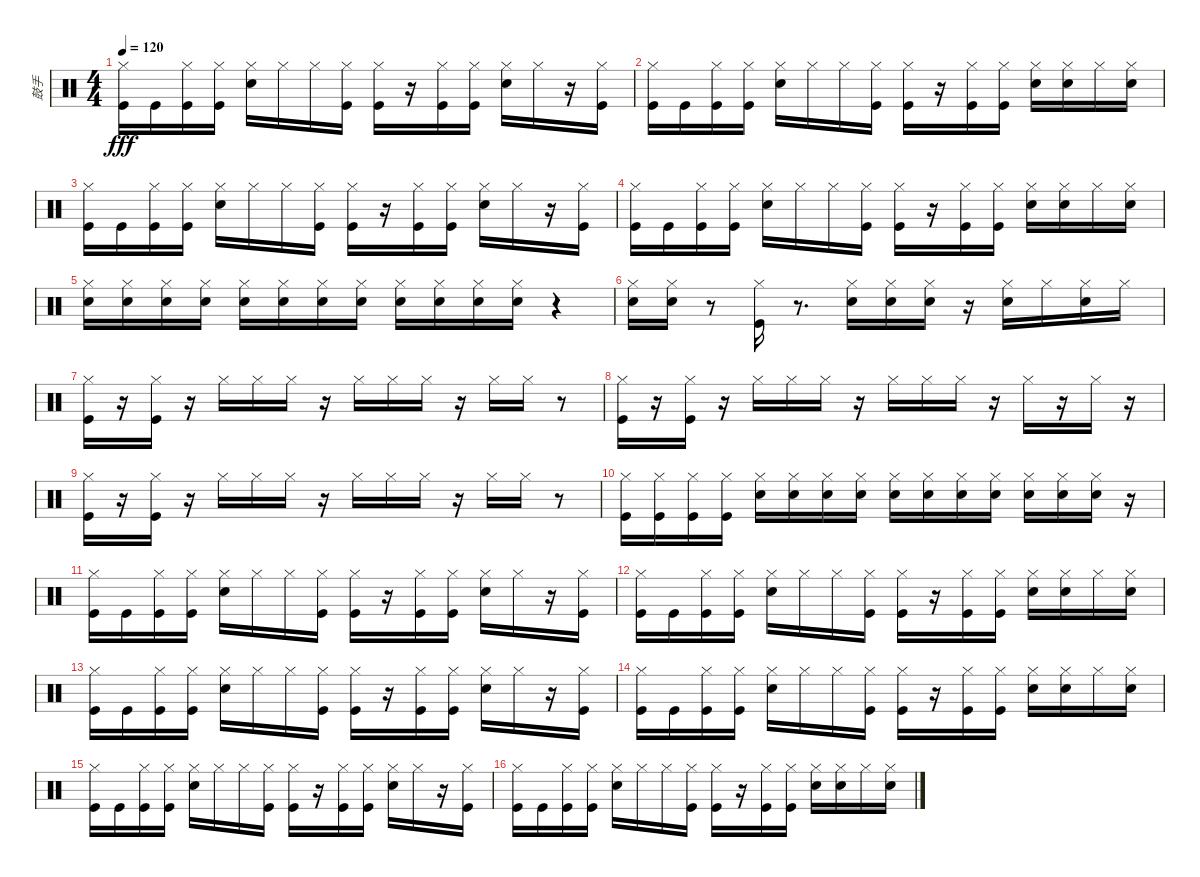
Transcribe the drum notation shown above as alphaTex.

\track ("鼓手" "鼓手") {instrument percussion}
\staff {score}
\articulation defaults
\ts (4 4)
\tempo 120
\clef neutral
\ks c
("Kick (hit)" "Hi-Hat (closed)").16{dy fff} "Kick (hit)".16 ("Kick (hit)" "Hi-Hat (closed)").16 ("Kick (hit)" "Hi-Hat (closed)").16 ("Snare (hit) 2" "Hi-Hat (closed)").16 "Hi-Hat (closed)".16 "Hi-Hat (closed)".16 ("Kick (hit)" "Hi-Hat (closed)").16 ("Kick (hit)" "Hi-Hat (closed)").16 r.16 ("Kick (hit)" "Hi-Hat (closed)").16 ("Kick (hit)" "Hi-Hat (closed)").16 ("Snare (hit) 2" "Hi-Hat (closed)").16 "Hi-Hat (closed)".16 r.16 ("Kick (hit)" "Hi-Hat (closed)").16 |
("Kick (hit)" "Hi-Hat (closed)").16 "Kick (hit)".16 ("Kick (hit)" "Hi-Hat (closed)").16 ("Kick (hit)" "Hi-Hat (closed)").16 ("Snare (hit) 2" "Hi-Hat (closed)").16 "Hi-Hat (closed)".16 "Hi-Hat (closed)".16 ("Kick (hit)" "Hi-Hat (closed)").16 ("Kick (hit)" "Hi-Hat (closed)").16 r.16 ("Kick (hit)" "Hi-Hat (closed)").16 ("Kick (hit)" "Hi-Hat (closed)").16 ("Snare (hit) 2" "Hi-Hat (closed)").16 ("Snare (hit) 2" "Hi-Hat (closed)").16 "Hi-Hat (closed)".16 ("Snare (hit) 2" "Hi-Hat (closed)").16 |
("Kick (hit)" "Hi-Hat (closed)").16 "Kick (hit)".16 ("Kick (hit)" "Hi-Hat (closed)").16 ("Kick (hit)" "Hi-Hat (closed)").16 ("Snare (hit) 2" "Hi-Hat (closed)").16 "Hi-Hat (closed)".16 "Hi-Hat (closed)".16 ("Kick (hit)" "Hi-Hat (closed)").16 ("Kick (hit)" "Hi-Hat (closed)").16 r.16 ("Kick (hit)" "Hi-Hat (closed)").16 ("Kick (hit)" "Hi-Hat (closed)").16 ("Snare (hit) 2" "Hi-Hat (closed)").16 "Hi-Hat (closed)".16 r.16 ("Kick (hit)" "Hi-Hat (closed)").16 |
("Kick (hit)" "Hi-Hat (closed)").16 "Kick (hit)".16 ("Kick (hit)" "Hi-Hat (closed)").16 ("Kick (hit)" "Hi-Hat (closed)").16 ("Snare (hit) 2" "Hi-Hat (closed)").16 "Hi-Hat (closed)".16 "Hi-Hat (closed)".16 ("Kick (hit)" "Hi-Hat (closed)").16 ("Kick (hit)" "Hi-Hat (closed)").16 r.16 ("Kick (hit)" "Hi-Hat (closed)").16 ("Kick (hit)" "Hi-Hat (closed)").16 ("Snare (hit) 2" "Hi-Hat (closed)").16 ("Snare (hit) 2" "Hi-Hat (closed)").16 "Hi-Hat (closed)".16 ("Snare (hit) 2" "Hi-Hat (closed)").16 |
("Snare (hit) 2" "Hi-Hat (closed)").16 ("Snare (hit) 2" "Hi-Hat (closed)").16 ("Snare (hit) 2" "Hi-Hat (closed)").16 ("Snare (hit) 2" "Hi-Hat (closed)").16 ("Snare (hit) 2" "Hi-Hat (closed)").16 ("Snare (hit) 2" "Hi-Hat (closed)").16 ("Snare (hit) 2" "Hi-Hat (closed)").16 ("Snare (hit) 2" "Hi-Hat (closed)").16 ("Snare (hit) 2" "Hi-Hat (closed)").16 ("Snare (hit) 2" "Hi-Hat (closed)").16 ("Snare (hit) 2" "Hi-Hat (closed)").16 ("Snare (hit) 2" "Hi-Hat (closed)").16 r.4 |
("Snare (hit) 2" "Hi-Hat (closed)").16 ("Snare (hit) 2" "Hi-Hat (closed)").16 r.8 ("Kick (hit)" "Hi-Hat (closed)").16 r.8{d} ("Snare (hit) 2" "Hi-Hat (closed)").16 ("Snare (hit) 2" "Hi-Hat (closed)").16 ("Snare (hit) 2" "Hi-Hat (closed)").16 r.16 ("Snare (hit) 2" "Hi-Hat (closed)").16 "Hi-Hat (closed)".16 ("Snare (hit) 2" "Hi-Hat (closed)").16 "Hi-Hat (closed)".16 |
("Kick (hit)" "Hi-Hat (closed)").16 r.16 ("Kick (hit)" "Hi-Hat (closed)").16 r.16 "Hi-Hat (closed)".16 "Hi-Hat (closed)".16 "Hi-Hat (closed)".16 r.16 "Hi-Hat (closed)".16 "Hi-Hat (closed)".16 "Hi-Hat (closed)".16 r.16 "Hi-Hat (closed)".16 "Hi-Hat (closed)".16 r.8 |
("Kick (hit)" "Hi-Hat (closed)").16 r.16 ("Kick (hit)" "Hi-Hat (closed)").16 r.16 "Hi-Hat (closed)".16 "Hi-Hat (closed)".16 "Hi-Hat (closed)".16 r.16 "Hi-Hat (closed)".16 "Hi-Hat (closed)".16 "Hi-Hat (closed)".16 r.16 "Hi-Hat (closed)".16 r.16 "Hi-Hat (closed)".16 r.16 |
("Kick (hit)" "Hi-Hat (closed)").16 r.16 ("Kick (hit)" "Hi-Hat (closed)").16 r.16 "Hi-Hat (closed)".16 "Hi-Hat (closed)".16 "Hi-Hat (closed)".16 r.16 "Hi-Hat (closed)".16 "Hi-Hat (closed)".16 "Hi-Hat (closed)".16 r.16 "Hi-Hat (closed)".16 "Hi-Hat (closed)".16 r.8 |
("Kick (hit)" "Hi-Hat (closed)").16 ("Kick (hit)" "Hi-Hat (closed)").16 ("Kick (hit)" "Hi-Hat (closed)").16 ("Kick (hit)" "Hi-Hat (closed)").16 ("Snare (hit) 2" "Hi-Hat (closed)").16 ("Snare (hit) 2" "Hi-Hat (closed)").16 ("Snare (hit) 2" "Hi-Hat (closed)").16 ("Snare (hit) 2" "Hi-Hat (closed)").16 ("Snare (hit) 2" "Hi-Hat (closed)").16 ("Snare (hit) 2" "Hi-Hat (closed)").16 ("Snare (hit) 2" "Hi-Hat (closed)").16 ("Snare (hit) 2" "Hi-Hat (closed)").16 ("Snare (hit) 2" "Hi-Hat (closed)").16 ("Snare (hit) 2" "Hi-Hat (closed)").16 ("Snare (hit) 2" "Hi-Hat (closed)").16 r.16 |
("Kick (hit)" "Hi-Hat (closed)").16 "Kick (hit)".16 ("Kick (hit)" "Hi-Hat (closed)").16 ("Kick (hit)" "Hi-Hat (closed)").16 ("Snare (hit) 2" "Hi-Hat (closed)").16 "Hi-Hat (closed)".16 "Hi-Hat (closed)".16 ("Kick (hit)" "Hi-Hat (closed)").16 ("Kick (hit)" "Hi-Hat (closed)").16 r.16 ("Kick (hit)" "Hi-Hat (closed)").16 ("Kick (hit)" "Hi-Hat (closed)").16 ("Snare (hit) 2" "Hi-Hat (closed)").16 "Hi-Hat (closed)".16 r.16 ("Kick (hit)" "Hi-Hat (closed)").16 |
("Kick (hit)" "Hi-Hat (closed)").16 "Kick (hit)".16 ("Kick (hit)" "Hi-Hat (closed)").16 ("Kick (hit)" "Hi-Hat (closed)").16 ("Snare (hit) 2" "Hi-Hat (closed)").16 "Hi-Hat (closed)".16 "Hi-Hat (closed)".16 ("Kick (hit)" "Hi-Hat (closed)").16 ("Kick (hit)" "Hi-Hat (closed)").16 r.16 ("Kick (hit)" "Hi-Hat (closed)").16 ("Kick (hit)" "Hi-Hat (closed)").16 ("Snare (hit) 2" "Hi-Hat (closed)").16 ("Snare (hit) 2" "Hi-Hat (closed)").16 "Hi-Hat (closed)".16 ("Snare (hit) 2" "Hi-Hat (closed)").16 |
("Kick (hit)" "Hi-Hat (closed)").16 "Kick (hit)".16 ("Kick (hit)" "Hi-Hat (closed)").16 ("Kick (hit)" "Hi-Hat (closed)").16 ("Snare (hit) 2" "Hi-Hat (closed)").16 "Hi-Hat (closed)".16 "Hi-Hat (closed)".16 ("Kick (hit)" "Hi-Hat (closed)").16 ("Kick (hit)" "Hi-Hat (closed)").16 r.16 ("Kick (hit)" "Hi-Hat (closed)").16 ("Kick (hit)" "Hi-Hat (closed)").16 ("Snare (hit) 2" "Hi-Hat (closed)").16 "Hi-Hat (closed)".16 r.16 ("Kick (hit)" "Hi-Hat (closed)").16 |
("Kick (hit)" "Hi-Hat (closed)").16 "Kick (hit)".16 ("Kick (hit)" "Hi-Hat (closed)").16 ("Kick (hit)" "Hi-Hat (closed)").16 ("Snare (hit) 2" "Hi-Hat (closed)").16 "Hi-Hat (closed)".16 "Hi-Hat (closed)".16 ("Kick (hit)" "Hi-Hat (closed)").16 ("Kick (hit)" "Hi-Hat (closed)").16 r.16 ("Kick (hit)" "Hi-Hat (closed)").16 ("Kick (hit)" "Hi-Hat (closed)").16 ("Snare (hit) 2" "Hi-Hat (closed)").16 ("Snare (hit) 2" "Hi-Hat (closed)").16 "Hi-Hat (closed)".16 ("Snare (hit) 2" "Hi-Hat (closed)").16 |
("Kick (hit)" "Hi-Hat (closed)").16 "Kick (hit)".16 ("Kick (hit)" "Hi-Hat (closed)").16 ("Kick (hit)" "Hi-Hat (closed)").16 ("Snare (hit) 2" "Hi-Hat (closed)").16 "Hi-Hat (closed)".16 "Hi-Hat (closed)".16 ("Kick (hit)" "Hi-Hat (closed)").16 ("Kick (hit)" "Hi-Hat (closed)").16 r.16 ("Kick (hit)" "Hi-Hat (closed)").16 ("Kick (hit)" "Hi-Hat (closed)").16 ("Snare (hit) 2" "Hi-Hat (closed)").16 "Hi-Hat (closed)".16 r.16 ("Kick (hit)" "Hi-Hat (closed)").16 |
("Kick (hit)" "Hi-Hat (closed)").16 "Kick (hit)".16 ("Kick (hit)" "Hi-Hat (closed)").16 ("Kick (hit)" "Hi-Hat (closed)").16 ("Snare (hit) 2" "Hi-Hat (closed)").16 "Hi-Hat (closed)".16 "Hi-Hat (closed)".16 ("Kick (hit)" "Hi-Hat (closed)").16 ("Kick (hit)" "Hi-Hat (closed)").16 r.16 ("Kick (hit)" "Hi-Hat (closed)").16 ("Kick (hit)" "Hi-Hat (closed)").16 ("Snare (hit) 2" "Hi-Hat (closed)").16 ("Snare (hit) 2" "Hi-Hat (closed)").16 "Hi-Hat (closed)".16 ("Snare (hit) 2" "Hi-Hat (closed)").16
